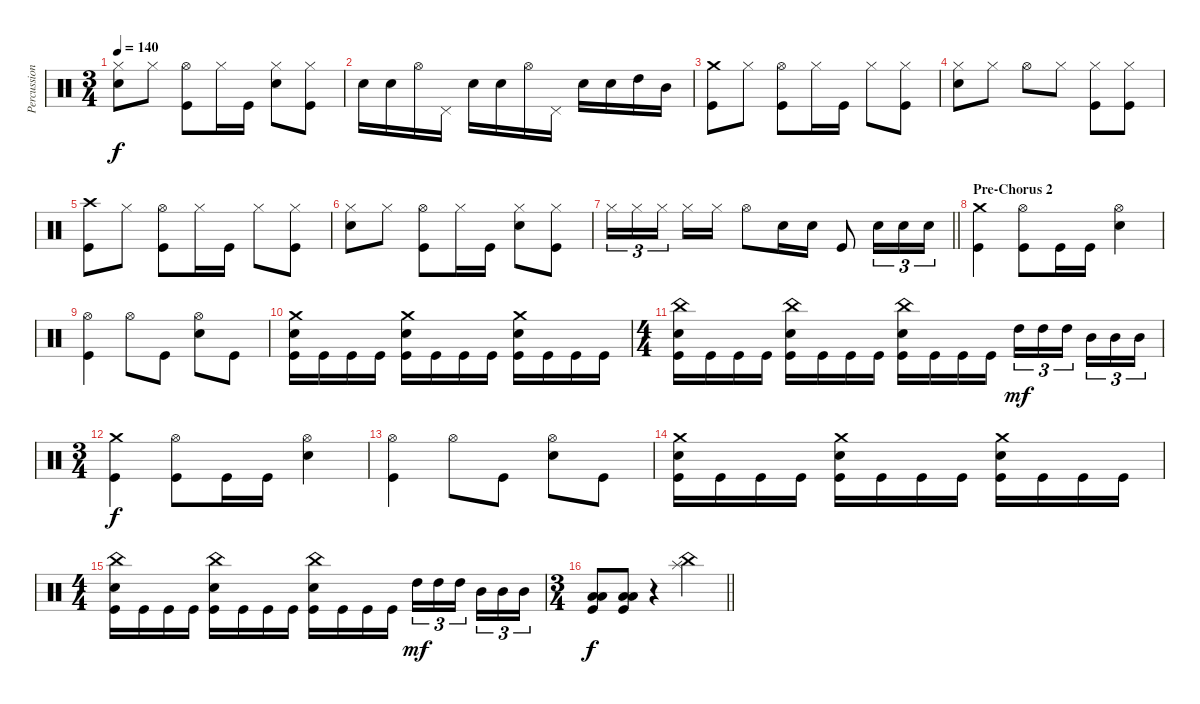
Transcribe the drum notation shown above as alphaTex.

\track ("Percussion" "Percussion") {instrument percussion}
\staff {score}
\articulation defaults
\ts (3 4)
\tempo 140
\clef neutral
\ks c
("Hi-Hat (closed)" "Electric Snare (hit)").8{dy f} "Hi-Hat (closed)".8 ("Hi-Hat (open)" "Kick (hit)").8 "Hi-Hat (closed)".16 "Kick (hit)".16 ("Hi-Hat (closed)" "Electric Snare (hit)").8 ("Hi-Hat (closed)" "Kick (hit)").8 |
"Electric Snare (hit)".16 "Electric Snare (hit)".16 "Hi-Hat (open)".16 "Pedal Hi-Hat (hit)".16 "Electric Snare (hit)".16 "Electric Snare (hit)".16 "Hi-Hat (open)".16 "Pedal Hi-Hat (hit)".16 "Electric Snare (hit)".16 "Electric Snare (hit)".16 "High Tom (hit)".16 "Mid Tom (hit)".16 |
("Crash medium (hit)" "Kick (hit)").8 "Hi-Hat (closed)".8 ("Hi-Hat (open)" "Kick (hit)").8 "Hi-Hat (closed)".16 "Kick (hit)".16 "Hi-Hat (closed)".8 ("Hi-Hat (closed)" "Kick (hit)").8 |
("Hi-Hat (closed)" "Electric Snare (hit)").8 "Hi-Hat (closed)".8 "Hi-Hat (open)".8 "Hi-Hat (closed)".8 ("Hi-Hat (closed)" "Kick (hit)").8 ("Hi-Hat (closed)" "Kick (hit)").8 |
("Crash high (hit)" "Kick (hit)").8 "Hi-Hat (closed)".8 ("Hi-Hat (open)" "Kick (hit)").8 "Hi-Hat (closed)".16 "Kick (hit)".16 "Hi-Hat (closed)".8 ("Hi-Hat (closed)" "Kick (hit)").8 |
("Hi-Hat (closed)" "Electric Snare (hit)").8 "Hi-Hat (closed)".8 ("Hi-Hat (open)" "Kick (hit)").8 "Hi-Hat (closed)".16 "Kick (hit)".16 ("Hi-Hat (closed)" "Electric Snare (hit)").8 ("Hi-Hat (closed)" "Kick (hit)").8 |
\barLineRight lightlight "Hi-Hat (closed)".16{tu (3 2)} "Hi-Hat (closed)".16{tu (3 2)} "Hi-Hat (closed)".16{tu (3 2) beam splitsecondary} "Hi-Hat (closed)".16 "Hi-Hat (closed)".16 "Hi-Hat (open)".8 "Electric Snare (hit)".16 "Electric Snare (hit)".16 "Kick (hit)".8 "Electric Snare (hit)".16{tu (3 2)} "Electric Snare (hit)".16{tu (3 2)} "Electric Snare (hit)".16{tu (3 2)}
|
\section ("" "Pre-Chorus 2")
("Crash medium (hit)" "Kick (hit)").4 ("Hi-Hat (open)" "Kick (hit)").8 "Kick (hit)".16 "Kick (hit)".16 ("Hi-Hat (open)" "Electric Snare (hit)").4 |
("Hi-Hat (open)" "Kick (hit)").4 "Hi-Hat (open)".8 "Kick (hit)".8 ("Hi-Hat (open)" "Electric Snare (hit)").8 "Kick (hit)".8 |
("Crash medium (hit)" "Electric Snare (hit)" "Kick (hit)").16 "Kick (hit)".16 "Kick (hit)".16 "Kick (hit)".16 ("Crash medium (hit)" "Electric Snare (hit)" "Kick (hit)").16 "Kick (hit)".16 "Kick (hit)".16 "Kick (hit)".16 ("Crash medium (hit)" "Electric Snare (hit)" "Kick (hit)").16 "Kick (hit)".16 "Kick (hit)".16 "Kick (hit)".16 |
\ts (4 4)
("China (hit)" "Electric Snare (hit)" "Kick (hit)").16 "Kick (hit)".16 "Kick (hit)".16 "Kick (hit)".16 ("China (hit)" "Electric Snare (hit)" "Kick (hit)").16 "Kick (hit)".16 "Kick (hit)".16 "Kick (hit)".16 ("China (hit)" "Electric Snare (hit)" "Kick (hit)").16 "Kick (hit)".16 "Kick (hit)".16 "Kick (hit)".16 "High Tom (hit)".16{tu (3 2) dy mf} "High Tom (hit)".16{tu (3 2)} "High Tom (hit)".16{tu (3 2) beam splitsecondary} "Mid Tom (hit)".16{tu (3 2)} "Mid Tom (hit)".16{tu (3 2)} "Mid Tom (hit)".16{tu (3 2)} |
\ts (3 4)
("Crash medium (hit)" "Kick (hit)").4{dy f} ("Hi-Hat (open)" "Kick (hit)").8 "Kick (hit)".16 "Kick (hit)".16 ("Hi-Hat (open)" "Electric Snare (hit)").4 |
("Hi-Hat (open)" "Kick (hit)").4 "Hi-Hat (open)".8 "Kick (hit)".8 ("Hi-Hat (open)" "Electric Snare (hit)").8 "Kick (hit)".8 |
("Crash medium (hit)" "Electric Snare (hit)" "Kick (hit)").16 "Kick (hit)".16 "Kick (hit)".16 "Kick (hit)".16 ("Crash medium (hit)" "Electric Snare (hit)" "Kick (hit)").16 "Kick (hit)".16 "Kick (hit)".16 "Kick (hit)".16 ("Crash medium (hit)" "Electric Snare (hit)" "Kick (hit)").16 "Kick (hit)".16 "Kick (hit)".16 "Kick (hit)".16 |
\ts (4 4)
("China (hit)" "Electric Snare (hit)" "Kick (hit)").16 "Kick (hit)".16 "Kick (hit)".16 "Kick (hit)".16 ("China (hit)" "Electric Snare (hit)" "Kick (hit)").16 "Kick (hit)".16 "Kick (hit)".16 "Kick (hit)".16 ("China (hit)" "Electric Snare (hit)" "Kick (hit)").16 "Kick (hit)".16 "Kick (hit)".16 "Kick (hit)".16 "High Tom (hit)".16{tu (3 2) dy mf} "High Tom (hit)".16{tu (3 2)} "High Tom (hit)".16{tu (3 2) beam splitsecondary} "Mid Tom (hit)".16{tu (3 2)} "Mid Tom (hit)".16{tu (3 2)} "Mid Tom (hit)".16{tu (3 2)} |
\ts (3 4)
\barLineRight lightlight
("Low Tom (hit)" "Low Floor Tom (hit)" "Kick (hit)").8{dy f} ("Low Tom (hit)" "Low Floor Tom (hit)" "Kick (hit)").8 r.4 ("China (hit)" "Splash (hit)").4
